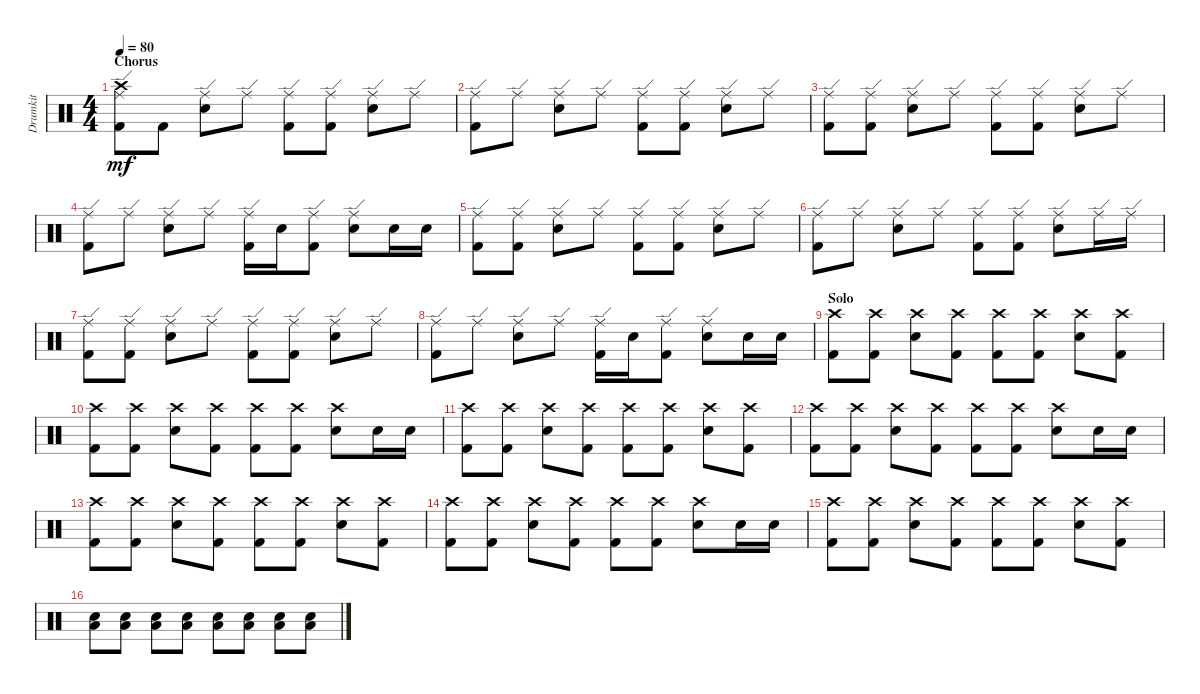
\track ("Drumkit" "Drumkit") {instrument percussion}
\staff {score}
\articulation defaults
\ts (4 4)
\section ("" "Chorus")
\tempo 80
\clef neutral
\ks c
("Crash high (hit)" "Ride (edge)" "Kick (hit) 2").8{dy mf} "Kick (hit) 2".8 ("Snare (hit) 2" "Ride (edge)").8 "Ride (edge)".8 ("Ride (edge)" "Kick (hit) 2").8 ("Ride (edge)" "Kick (hit) 2").8 ("Snare (hit) 2" "Ride (edge)").8 "Ride (edge)".8 |
("Ride (edge)" "Kick (hit) 2").8 "Ride (edge)".8 ("Ride (edge)" "Snare (hit) 2").8 "Ride (edge)".8 ("Ride (edge)" "Kick (hit) 2").8 ("Ride (edge)" "Kick (hit) 2").8 ("Ride (edge)" "Snare (hit) 2").8 "Ride (edge)".8 |
("Ride (edge)" "Kick (hit) 2").8 ("Ride (edge)" "Kick (hit) 2").8 ("Ride (edge)" "Snare (hit) 2").8 "Ride (edge)".8 ("Ride (edge)" "Kick (hit) 2").8 ("Ride (edge)" "Kick (hit) 2").8 ("Ride (edge)" "Snare (hit) 2").8 "Ride (edge)".8 |
("Ride (edge)" "Kick (hit) 2").8 "Ride (edge)".8 ("Ride (edge)" "Snare (hit) 2").8 "Ride (edge)".8 ("Ride (edge)" "Kick (hit) 2").16 "Snare (hit) 2".16 ("Ride (edge)" "Kick (hit) 2").8 ("Ride (edge)" "Snare (hit) 2").8 "Snare (hit) 2".16 "Snare (hit) 2".16 |
("Ride (edge)" "Kick (hit) 2").8 ("Ride (edge)" "Kick (hit) 2").8 ("Ride (edge)" "Snare (hit) 2").8 "Ride (edge)".8 ("Ride (edge)" "Kick (hit) 2").8 ("Ride (edge)" "Kick (hit) 2").8 ("Ride (edge)" "Snare (hit) 2").8 "Ride (edge)".8 |
("Ride (edge)" "Kick (hit) 2").8 "Ride (edge)".8 ("Ride (edge)" "Snare (hit) 2").8 "Ride (edge)".8 ("Ride (edge)" "Kick (hit) 2").8 ("Ride (edge)" "Kick (hit) 2").8 ("Ride (edge)" "Snare (hit) 2").8 "Ride (edge)".16 "Ride (edge)".16 |
("Ride (edge)" "Kick (hit) 2").8 ("Ride (edge)" "Kick (hit) 2").8 ("Ride (edge)" "Snare (hit) 2").8 "Ride (edge)".8 ("Ride (edge)" "Kick (hit) 2").8 ("Ride (edge)" "Kick (hit) 2").8 ("Ride (edge)" "Snare (hit) 2").8 "Ride (edge)".8 |
("Ride (edge)" "Kick (hit) 2").8 "Ride (edge)".8 ("Ride (edge)" "Snare (hit) 2").8 "Ride (edge)".8 ("Ride (edge)" "Kick (hit) 2").16 "Snare (hit) 2".16 ("Ride (edge)" "Kick (hit) 2").8 ("Ride (edge)" "Snare (hit) 2").8 "Snare (hit) 2".16 "Snare (hit) 2".16 |
\section ("" "Solo")
("Kick (hit) 2" "Crash high (hit)").8 ("Kick (hit) 2" "Crash high (hit)").8 ("Snare (hit) 2" "Crash high (hit)").8 ("Kick (hit) 2" "Crash high (hit)").8 ("Kick (hit) 2" "Crash high (hit)").8 ("Kick (hit) 2" "Crash high (hit)").8 ("Snare (hit) 2" "Crash high (hit)").8 ("Kick (hit) 2" "Crash high (hit)").8 |
("Kick (hit) 2" "Crash high (hit)").8 ("Kick (hit) 2" "Crash high (hit)").8 ("Snare (hit) 2" "Crash high (hit)").8 ("Kick (hit) 2" "Crash high (hit)").8 ("Kick (hit) 2" "Crash high (hit)").8 ("Kick (hit) 2" "Crash high (hit)").8 ("Snare (hit) 2" "Crash high (hit)").8 "Snare (hit) 2".16 "Snare (hit) 2".16 |
("Kick (hit) 2" "Crash high (hit)").8 ("Kick (hit) 2" "Crash high (hit)").8 ("Snare (hit) 2" "Crash high (hit)").8 ("Kick (hit) 2" "Crash high (hit)").8 ("Kick (hit) 2" "Crash high (hit)").8 ("Kick (hit) 2" "Crash high (hit)").8 ("Snare (hit) 2" "Crash high (hit)").8 ("Kick (hit) 2" "Crash high (hit)").8 |
("Kick (hit) 2" "Crash high (hit)").8 ("Kick (hit) 2" "Crash high (hit)").8 ("Snare (hit) 2" "Crash high (hit)").8 ("Kick (hit) 2" "Crash high (hit)").8 ("Kick (hit) 2" "Crash high (hit)").8 ("Kick (hit) 2" "Crash high (hit)").8 ("Snare (hit) 2" "Crash high (hit)").8 "Snare (hit) 2".16 "Snare (hit) 2".16 |
("Kick (hit) 2" "Crash high (hit)").8 ("Kick (hit) 2" "Crash high (hit)").8 ("Snare (hit) 2" "Crash high (hit)").8 ("Kick (hit) 2" "Crash high (hit)").8 ("Kick (hit) 2" "Crash high (hit)").8 ("Kick (hit) 2" "Crash high (hit)").8 ("Snare (hit) 2" "Crash high (hit)").8 ("Kick (hit) 2" "Crash high (hit)").8 |
("Kick (hit) 2" "Crash high (hit)").8 ("Kick (hit) 2" "Crash high (hit)").8 ("Snare (hit) 2" "Crash high (hit)").8 ("Kick (hit) 2" "Crash high (hit)").8 ("Kick (hit) 2" "Crash high (hit)").8 ("Kick (hit) 2" "Crash high (hit)").8 ("Snare (hit) 2" "Crash high (hit)").8 "Snare (hit) 2".16 "Snare (hit) 2".16 |
("Kick (hit) 2" "Crash high (hit)").8 ("Kick (hit) 2" "Crash high (hit)").8 ("Snare (hit) 2" "Crash high (hit)").8 ("Kick (hit) 2" "Crash high (hit)").8 ("Kick (hit) 2" "Crash high (hit)").8 ("Kick (hit) 2" "Crash high (hit)").8 ("Snare (hit) 2" "Crash high (hit)").8 ("Kick (hit) 2" "Crash high (hit)").8 |
("Snare (hit) 2" "Low Tom (hit)").8 ("Snare (hit) 2" "Low Tom (hit)").8 ("Snare (hit) 2" "Low Tom (hit)").8 ("Snare (hit) 2" "Low Tom (hit)").8 ("Snare (hit) 2" "Low Tom (hit)").8 ("Snare (hit) 2" "Low Tom (hit)").8 ("Snare (hit) 2" "Low Tom (hit)").8 ("Snare (hit) 2" "Low Tom (hit)").8
